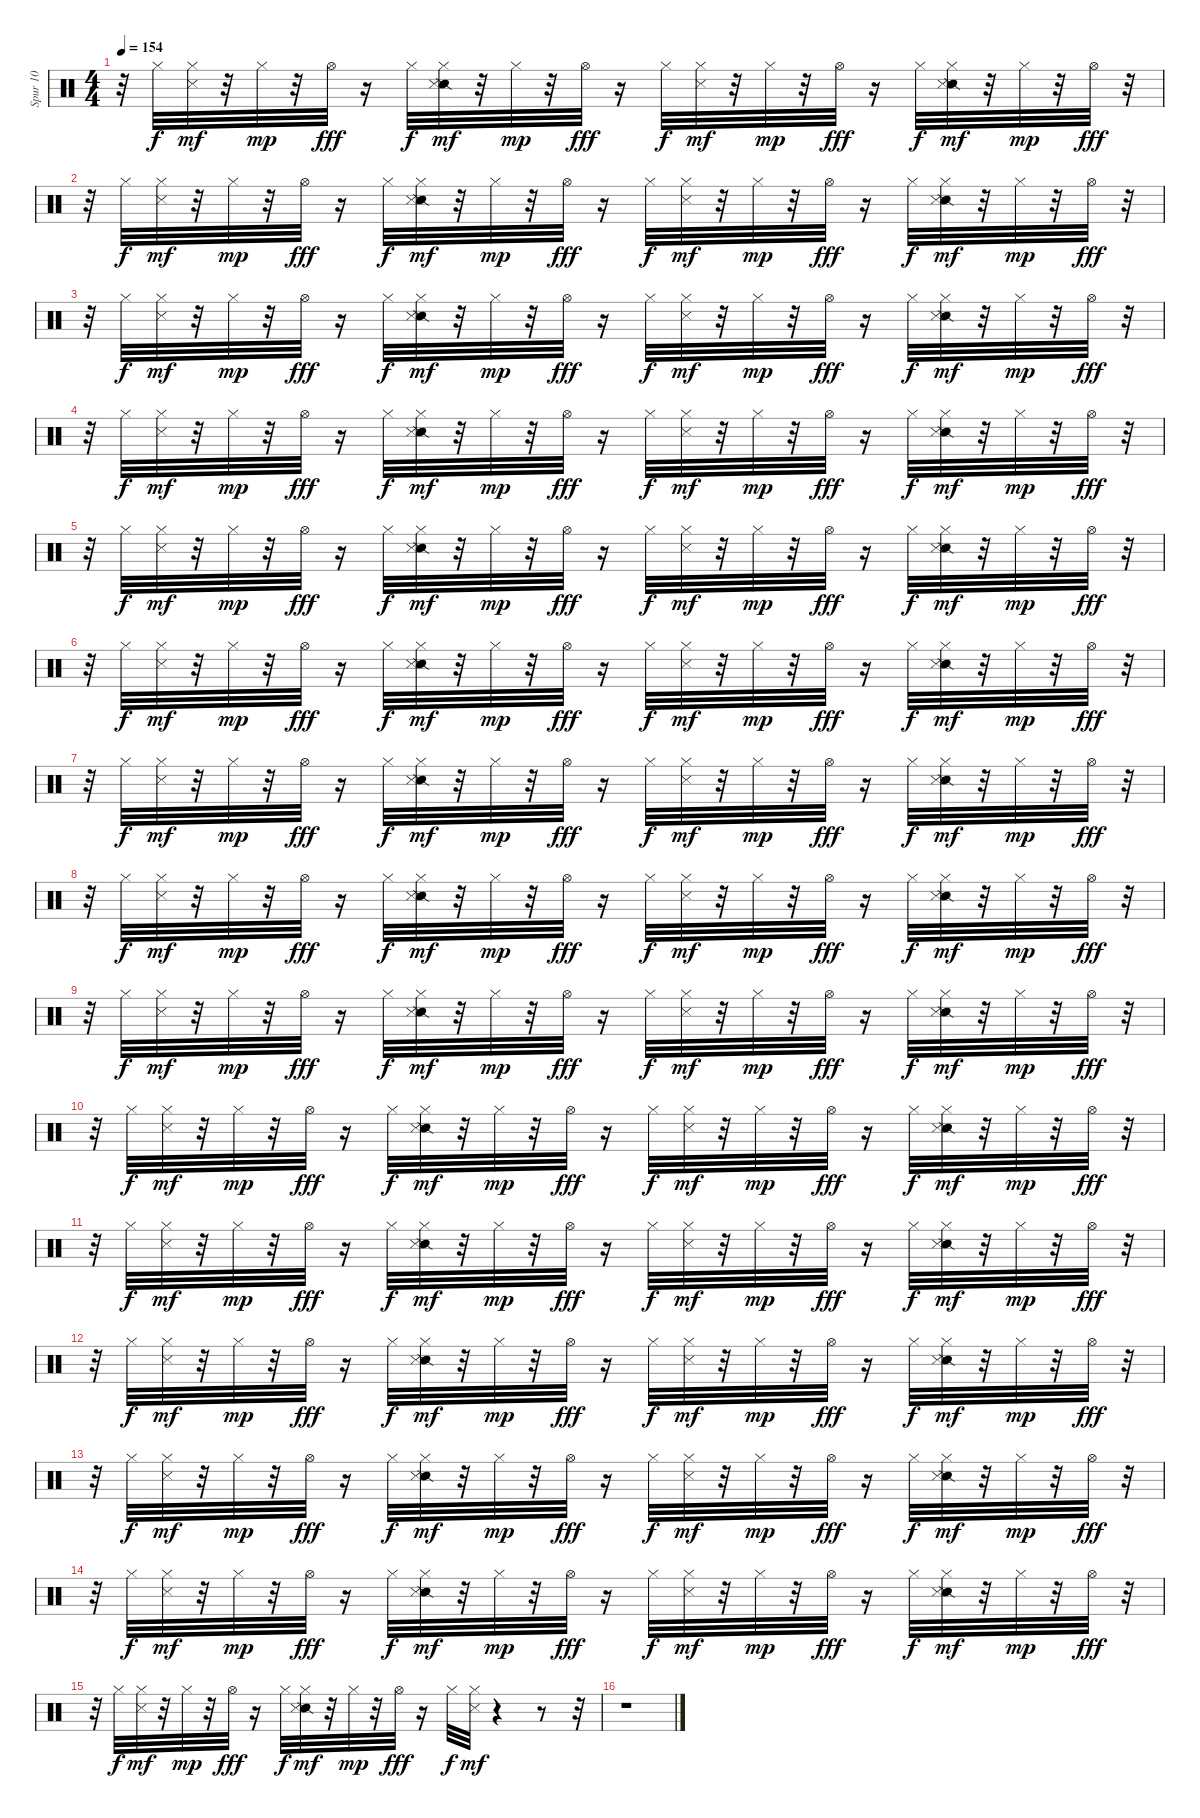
\track ("Spur 10" "Spur 10") {instrument percussion}
\staff {score}
\articulation defaults
\ts (4 4)
\tempo 154
\clef neutral
\ks c
r.32{dy fff} "Hi-Hat (closed)".32{dy f} ("Metronome (hit)" "Hi-Hat (closed)").32{dy mf} r.32 "Hi-Hat (closed)".32{dy mp} r.32 "Hi-Hat (open)".32{dy fff} r.16 "Hi-Hat (closed)".32{dy f} ("Snare (side stick) 2" "Metronome (hit)" "Hi-Hat (closed)").32{dy mf} r.32 "Hi-Hat (closed)".32{dy mp} r.32 "Hi-Hat (open)".32{dy fff} r.16 "Hi-Hat (closed)".32{dy f} ("Metronome (hit)" "Hi-Hat (closed)").32{dy mf} r.32 "Hi-Hat (closed)".32{dy mp} r.32 "Hi-Hat (open)".32{dy fff} r.16 "Hi-Hat (closed)".32{dy f} ("Snare (side stick) 2" "Metronome (hit)" "Hi-Hat (closed)").32{dy mf} r.32 "Hi-Hat (closed)".32{dy mp} r.32 "Hi-Hat (open)".32{dy fff} r.32 |
r.32 "Hi-Hat (closed)".32{dy f} ("Metronome (hit)" "Hi-Hat (closed)").32{dy mf} r.32 "Hi-Hat (closed)".32{dy mp} r.32 "Hi-Hat (open)".32{dy fff} r.16 "Hi-Hat (closed)".32{dy f} ("Snare (side stick) 2" "Metronome (hit)" "Hi-Hat (closed)").32{dy mf} r.32 "Hi-Hat (closed)".32{dy mp} r.32 "Hi-Hat (open)".32{dy fff} r.16 "Hi-Hat (closed)".32{dy f} ("Metronome (hit)" "Hi-Hat (closed)").32{dy mf} r.32 "Hi-Hat (closed)".32{dy mp} r.32 "Hi-Hat (open)".32{dy fff} r.16 "Hi-Hat (closed)".32{dy f} ("Snare (side stick) 2" "Metronome (hit)" "Hi-Hat (closed)").32{dy mf} r.32 "Hi-Hat (closed)".32{dy mp} r.32 "Hi-Hat (open)".32{dy fff} r.32 |
r.32 "Hi-Hat (closed)".32{dy f} ("Metronome (hit)" "Hi-Hat (closed)").32{dy mf} r.32 "Hi-Hat (closed)".32{dy mp} r.32 "Hi-Hat (open)".32{dy fff} r.16 "Hi-Hat (closed)".32{dy f} ("Snare (side stick) 2" "Metronome (hit)" "Hi-Hat (closed)").32{dy mf} r.32 "Hi-Hat (closed)".32{dy mp} r.32 "Hi-Hat (open)".32{dy fff} r.16 "Hi-Hat (closed)".32{dy f} ("Metronome (hit)" "Hi-Hat (closed)").32{dy mf} r.32 "Hi-Hat (closed)".32{dy mp} r.32 "Hi-Hat (open)".32{dy fff} r.16 "Hi-Hat (closed)".32{dy f} ("Snare (side stick) 2" "Metronome (hit)" "Hi-Hat (closed)").32{dy mf} r.32 "Hi-Hat (closed)".32{dy mp} r.32 "Hi-Hat (open)".32{dy fff} r.32 |
r.32 "Hi-Hat (closed)".32{dy f} ("Metronome (hit)" "Hi-Hat (closed)").32{dy mf} r.32 "Hi-Hat (closed)".32{dy mp} r.32 "Hi-Hat (open)".32{dy fff} r.16 "Hi-Hat (closed)".32{dy f} ("Snare (side stick) 2" "Metronome (hit)" "Hi-Hat (closed)").32{dy mf} r.32 "Hi-Hat (closed)".32{dy mp} r.32 "Hi-Hat (open)".32{dy fff} r.16 "Hi-Hat (closed)".32{dy f} ("Metronome (hit)" "Hi-Hat (closed)").32{dy mf} r.32 "Hi-Hat (closed)".32{dy mp} r.32 "Hi-Hat (open)".32{dy fff} r.16 "Hi-Hat (closed)".32{dy f} ("Snare (side stick) 2" "Metronome (hit)" "Hi-Hat (closed)").32{dy mf} r.32 "Hi-Hat (closed)".32{dy mp} r.32 "Hi-Hat (open)".32{dy fff} r.32 |
r.32 "Hi-Hat (closed)".32{dy f} ("Metronome (hit)" "Hi-Hat (closed)").32{dy mf} r.32 "Hi-Hat (closed)".32{dy mp} r.32 "Hi-Hat (open)".32{dy fff} r.16 "Hi-Hat (closed)".32{dy f} ("Snare (side stick) 2" "Metronome (hit)" "Hi-Hat (closed)").32{dy mf} r.32 "Hi-Hat (closed)".32{dy mp} r.32 "Hi-Hat (open)".32{dy fff} r.16 "Hi-Hat (closed)".32{dy f} ("Metronome (hit)" "Hi-Hat (closed)").32{dy mf} r.32 "Hi-Hat (closed)".32{dy mp} r.32 "Hi-Hat (open)".32{dy fff} r.16 "Hi-Hat (closed)".32{dy f} ("Snare (side stick) 2" "Metronome (hit)" "Hi-Hat (closed)").32{dy mf} r.32 "Hi-Hat (closed)".32{dy mp} r.32 "Hi-Hat (open)".32{dy fff} r.32 |
r.32 "Hi-Hat (closed)".32{dy f} ("Metronome (hit)" "Hi-Hat (closed)").32{dy mf} r.32 "Hi-Hat (closed)".32{dy mp} r.32 "Hi-Hat (open)".32{dy fff} r.16 "Hi-Hat (closed)".32{dy f} ("Snare (side stick) 2" "Metronome (hit)" "Hi-Hat (closed)").32{dy mf} r.32 "Hi-Hat (closed)".32{dy mp} r.32 "Hi-Hat (open)".32{dy fff} r.16 "Hi-Hat (closed)".32{dy f} ("Metronome (hit)" "Hi-Hat (closed)").32{dy mf} r.32 "Hi-Hat (closed)".32{dy mp} r.32 "Hi-Hat (open)".32{dy fff} r.16 "Hi-Hat (closed)".32{dy f} ("Snare (side stick) 2" "Metronome (hit)" "Hi-Hat (closed)").32{dy mf} r.32 "Hi-Hat (closed)".32{dy mp} r.32 "Hi-Hat (open)".32{dy fff} r.32 |
r.32 "Hi-Hat (closed)".32{dy f} ("Metronome (hit)" "Hi-Hat (closed)").32{dy mf} r.32 "Hi-Hat (closed)".32{dy mp} r.32 "Hi-Hat (open)".32{dy fff} r.16 "Hi-Hat (closed)".32{dy f} ("Snare (side stick) 2" "Metronome (hit)" "Hi-Hat (closed)").32{dy mf} r.32 "Hi-Hat (closed)".32{dy mp} r.32 "Hi-Hat (open)".32{dy fff} r.16 "Hi-Hat (closed)".32{dy f} ("Metronome (hit)" "Hi-Hat (closed)").32{dy mf} r.32 "Hi-Hat (closed)".32{dy mp} r.32 "Hi-Hat (open)".32{dy fff} r.16 "Hi-Hat (closed)".32{dy f} ("Snare (side stick) 2" "Metronome (hit)" "Hi-Hat (closed)").32{dy mf} r.32 "Hi-Hat (closed)".32{dy mp} r.32 "Hi-Hat (open)".32{dy fff} r.32 |
r.32 "Hi-Hat (closed)".32{dy f} ("Metronome (hit)" "Hi-Hat (closed)").32{dy mf} r.32 "Hi-Hat (closed)".32{dy mp} r.32 "Hi-Hat (open)".32{dy fff} r.16 "Hi-Hat (closed)".32{dy f} ("Snare (side stick) 2" "Metronome (hit)" "Hi-Hat (closed)").32{dy mf} r.32 "Hi-Hat (closed)".32{dy mp} r.32 "Hi-Hat (open)".32{dy fff} r.16 "Hi-Hat (closed)".32{dy f} ("Metronome (hit)" "Hi-Hat (closed)").32{dy mf} r.32 "Hi-Hat (closed)".32{dy mp} r.32 "Hi-Hat (open)".32{dy fff} r.16 "Hi-Hat (closed)".32{dy f} ("Snare (side stick) 2" "Metronome (hit)" "Hi-Hat (closed)").32{dy mf} r.32 "Hi-Hat (closed)".32{dy mp} r.32 "Hi-Hat (open)".32{dy fff} r.32 |
r.32 "Hi-Hat (closed)".32{dy f} ("Metronome (hit)" "Hi-Hat (closed)").32{dy mf} r.32 "Hi-Hat (closed)".32{dy mp} r.32 "Hi-Hat (open)".32{dy fff} r.16 "Hi-Hat (closed)".32{dy f} ("Snare (side stick) 2" "Metronome (hit)" "Hi-Hat (closed)").32{dy mf} r.32 "Hi-Hat (closed)".32{dy mp} r.32 "Hi-Hat (open)".32{dy fff} r.16 "Hi-Hat (closed)".32{dy f} ("Metronome (hit)" "Hi-Hat (closed)").32{dy mf} r.32 "Hi-Hat (closed)".32{dy mp} r.32 "Hi-Hat (open)".32{dy fff} r.16 "Hi-Hat (closed)".32{dy f} ("Snare (side stick) 2" "Metronome (hit)" "Hi-Hat (closed)").32{dy mf} r.32 "Hi-Hat (closed)".32{dy mp} r.32 "Hi-Hat (open)".32{dy fff} r.32 |
r.32 "Hi-Hat (closed)".32{dy f} ("Metronome (hit)" "Hi-Hat (closed)").32{dy mf} r.32 "Hi-Hat (closed)".32{dy mp} r.32 "Hi-Hat (open)".32{dy fff} r.16 "Hi-Hat (closed)".32{dy f} ("Snare (side stick) 2" "Metronome (hit)" "Hi-Hat (closed)").32{dy mf} r.32 "Hi-Hat (closed)".32{dy mp} r.32 "Hi-Hat (open)".32{dy fff} r.16 "Hi-Hat (closed)".32{dy f} ("Metronome (hit)" "Hi-Hat (closed)").32{dy mf} r.32 "Hi-Hat (closed)".32{dy mp} r.32 "Hi-Hat (open)".32{dy fff} r.16 "Hi-Hat (closed)".32{dy f} ("Snare (side stick) 2" "Metronome (hit)" "Hi-Hat (closed)").32{dy mf} r.32 "Hi-Hat (closed)".32{dy mp} r.32 "Hi-Hat (open)".32{dy fff} r.32 |
r.32 "Hi-Hat (closed)".32{dy f} ("Metronome (hit)" "Hi-Hat (closed)").32{dy mf} r.32 "Hi-Hat (closed)".32{dy mp} r.32 "Hi-Hat (open)".32{dy fff} r.16 "Hi-Hat (closed)".32{dy f} ("Snare (side stick) 2" "Metronome (hit)" "Hi-Hat (closed)").32{dy mf} r.32 "Hi-Hat (closed)".32{dy mp} r.32 "Hi-Hat (open)".32{dy fff} r.16 "Hi-Hat (closed)".32{dy f} ("Metronome (hit)" "Hi-Hat (closed)").32{dy mf} r.32 "Hi-Hat (closed)".32{dy mp} r.32 "Hi-Hat (open)".32{dy fff} r.16 "Hi-Hat (closed)".32{dy f} ("Snare (side stick) 2" "Metronome (hit)" "Hi-Hat (closed)").32{dy mf} r.32 "Hi-Hat (closed)".32{dy mp} r.32 "Hi-Hat (open)".32{dy fff} r.32 |
r.32 "Hi-Hat (closed)".32{dy f} ("Metronome (hit)" "Hi-Hat (closed)").32{dy mf} r.32 "Hi-Hat (closed)".32{dy mp} r.32 "Hi-Hat (open)".32{dy fff} r.16 "Hi-Hat (closed)".32{dy f} ("Snare (side stick) 2" "Metronome (hit)" "Hi-Hat (closed)").32{dy mf} r.32 "Hi-Hat (closed)".32{dy mp} r.32 "Hi-Hat (open)".32{dy fff} r.16 "Hi-Hat (closed)".32{dy f} ("Metronome (hit)" "Hi-Hat (closed)").32{dy mf} r.32 "Hi-Hat (closed)".32{dy mp} r.32 "Hi-Hat (open)".32{dy fff} r.16 "Hi-Hat (closed)".32{dy f} ("Snare (side stick) 2" "Metronome (hit)" "Hi-Hat (closed)").32{dy mf} r.32 "Hi-Hat (closed)".32{dy mp} r.32 "Hi-Hat (open)".32{dy fff} r.32 |
r.32 "Hi-Hat (closed)".32{dy f} ("Metronome (hit)" "Hi-Hat (closed)").32{dy mf} r.32 "Hi-Hat (closed)".32{dy mp} r.32 "Hi-Hat (open)".32{dy fff} r.16 "Hi-Hat (closed)".32{dy f} ("Snare (side stick) 2" "Metronome (hit)" "Hi-Hat (closed)").32{dy mf} r.32 "Hi-Hat (closed)".32{dy mp} r.32 "Hi-Hat (open)".32{dy fff} r.16 "Hi-Hat (closed)".32{dy f} ("Metronome (hit)" "Hi-Hat (closed)").32{dy mf} r.32 "Hi-Hat (closed)".32{dy mp} r.32 "Hi-Hat (open)".32{dy fff} r.16 "Hi-Hat (closed)".32{dy f} ("Snare (side stick) 2" "Metronome (hit)" "Hi-Hat (closed)").32{dy mf} r.32 "Hi-Hat (closed)".32{dy mp} r.32 "Hi-Hat (open)".32{dy fff} r.32 |
r.32 "Hi-Hat (closed)".32{dy f} ("Metronome (hit)" "Hi-Hat (closed)").32{dy mf} r.32 "Hi-Hat (closed)".32{dy mp} r.32 "Hi-Hat (open)".32{dy fff} r.16 "Hi-Hat (closed)".32{dy f} ("Snare (side stick) 2" "Metronome (hit)" "Hi-Hat (closed)").32{dy mf} r.32 "Hi-Hat (closed)".32{dy mp} r.32 "Hi-Hat (open)".32{dy fff} r.16 "Hi-Hat (closed)".32{dy f} ("Metronome (hit)" "Hi-Hat (closed)").32{dy mf} r.32 "Hi-Hat (closed)".32{dy mp} r.32 "Hi-Hat (open)".32{dy fff} r.16 "Hi-Hat (closed)".32{dy f} ("Snare (side stick) 2" "Metronome (hit)" "Hi-Hat (closed)").32{dy mf} r.32 "Hi-Hat (closed)".32{dy mp} r.32 "Hi-Hat (open)".32{dy fff} r.32 |
r.32 "Hi-Hat (closed)".32{dy f} ("Metronome (hit)" "Hi-Hat (closed)").32{dy mf} r.32 "Hi-Hat (closed)".32{dy mp} r.32 "Hi-Hat (open)".32{dy fff} r.16 "Hi-Hat (closed)".32{dy f} ("Snare (side stick) 2" "Metronome (hit)" "Hi-Hat (closed)").32{dy mf} r.32 "Hi-Hat (closed)".32{dy mp} r.32 "Hi-Hat (open)".32{dy fff} r.16 "Hi-Hat (closed)".32{dy f} ("Metronome (hit)" "Hi-Hat (closed)").32{dy mf} r.4 r.8 r.32 |
r.1
